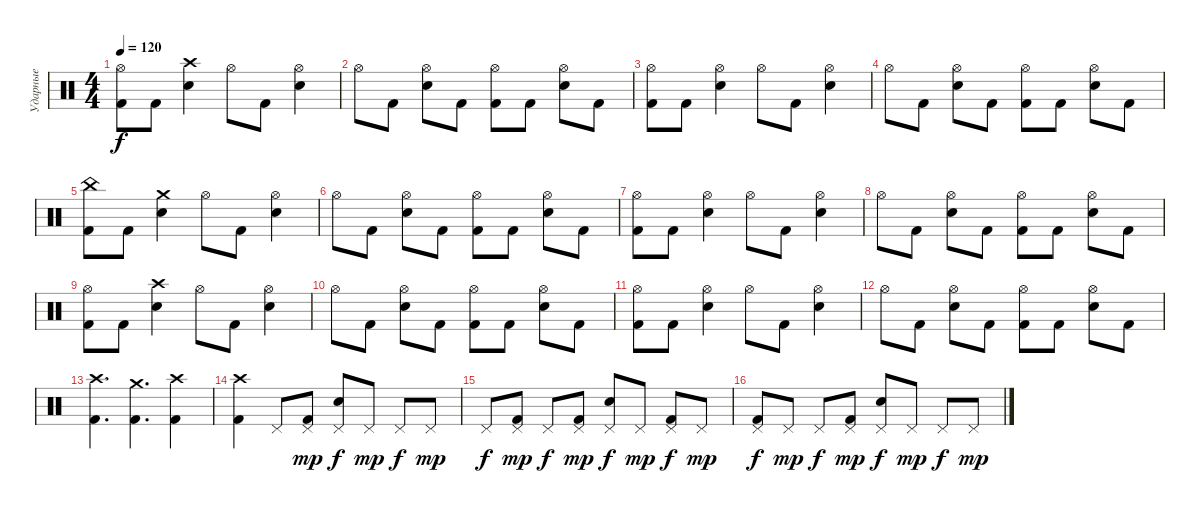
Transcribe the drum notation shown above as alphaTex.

\track ("Ударные" "Ударные") {instrument percussion}
\staff {score}
\articulation defaults
\ts (4 4)
\tempo 120
\clef neutral
\ks c
("Hi-Hat (open)" "Kick (hit) 2").8{dy f} "Kick (hit) 2".8 ("Crash high (hit)" "Electric Snare (hit)").4 "Hi-Hat (open)".8 "Kick (hit) 2".8 ("Hi-Hat (open)" "Electric Snare (hit)").4 |
"Hi-Hat (open)".8 "Kick (hit) 2".8 ("Hi-Hat (open)" "Electric Snare (hit)").8 "Kick (hit) 2".8 ("Hi-Hat (open)" "Kick (hit) 2").8 "Kick (hit) 2".8 ("Hi-Hat (open)" "Electric Snare (hit)").8 "Kick (hit) 2".8 |
("Hi-Hat (open)" "Kick (hit) 2").8 "Kick (hit) 2".8 ("Hi-Hat (open)" "Electric Snare (hit)").4 "Hi-Hat (open)".8 "Kick (hit) 2".8 ("Hi-Hat (open)" "Electric Snare (hit)").4 |
"Hi-Hat (open)".8 "Kick (hit) 2".8 ("Hi-Hat (open)" "Electric Snare (hit)").8 "Kick (hit) 2".8 ("Hi-Hat (open)" "Kick (hit) 2").8 "Kick (hit) 2".8 ("Hi-Hat (open)" "Electric Snare (hit)").8 "Kick (hit) 2".8 |
("China (hit)" "Kick (hit) 2").8 "Kick (hit) 2".8 ("Crash medium (hit)" "Electric Snare (hit)").4 "Hi-Hat (open)".8 "Kick (hit) 2".8 ("Hi-Hat (open)" "Electric Snare (hit)").4 |
"Hi-Hat (open)".8 "Kick (hit) 2".8 ("Hi-Hat (open)" "Electric Snare (hit)").8 "Kick (hit) 2".8 ("Hi-Hat (open)" "Kick (hit) 2").8 "Kick (hit) 2".8 ("Hi-Hat (open)" "Electric Snare (hit)").8 "Kick (hit) 2".8 |
("Hi-Hat (open)" "Kick (hit) 2").8 "Kick (hit) 2".8 ("Hi-Hat (open)" "Electric Snare (hit)").4 "Hi-Hat (open)".8 "Kick (hit) 2".8 ("Hi-Hat (open)" "Electric Snare (hit)").4 |
"Hi-Hat (open)".8 "Kick (hit) 2".8 ("Hi-Hat (open)" "Electric Snare (hit)").8 "Kick (hit) 2".8 ("Hi-Hat (open)" "Kick (hit) 2").8 "Kick (hit) 2".8 ("Hi-Hat (open)" "Electric Snare (hit)").8 "Kick (hit) 2".8 |
("Hi-Hat (open)" "Kick (hit) 2").8 "Kick (hit) 2".8 ("Crash high (hit)" "Electric Snare (hit)").4 "Hi-Hat (open)".8 "Kick (hit) 2".8 ("Hi-Hat (open)" "Electric Snare (hit)").4 |
"Hi-Hat (open)".8 "Kick (hit) 2".8 ("Hi-Hat (open)" "Electric Snare (hit)").8 "Kick (hit) 2".8 ("Hi-Hat (open)" "Kick (hit) 2").8 "Kick (hit) 2".8 ("Hi-Hat (open)" "Electric Snare (hit)").8 "Kick (hit) 2".8 |
("Hi-Hat (open)" "Kick (hit) 2").8 "Kick (hit) 2".8 ("Hi-Hat (open)" "Electric Snare (hit)").4 "Hi-Hat (open)".8 "Kick (hit) 2".8 ("Hi-Hat (open)" "Electric Snare (hit)").4 |
"Hi-Hat (open)".8 "Kick (hit) 2".8 ("Hi-Hat (open)" "Electric Snare (hit)").8 "Kick (hit) 2".8 ("Hi-Hat (open)" "Kick (hit) 2").8 "Kick (hit) 2".8 ("Hi-Hat (open)" "Electric Snare (hit)").8 "Kick (hit) 2".8 |
("Crash high (hit)" "Kick (hit) 2").4{d} ("Crash medium (hit)" "Kick (hit) 2").4{d} ("Crash high (hit)" "Kick (hit) 2").4 |
("Crash high (hit)" "Kick (hit) 2").4 "Pedal Hi-Hat (hit)".8 ("Pedal Hi-Hat (hit)" "Kick (hit) 2").8{dy mp} ("Pedal Hi-Hat (hit)" "Electric Snare (hit)").8{dy f} "Pedal Hi-Hat (hit)".8{dy mp} "Pedal Hi-Hat (hit)".8{dy f} "Pedal Hi-Hat (hit)".8{dy mp} |
"Pedal Hi-Hat (hit)".8{dy f} ("Pedal Hi-Hat (hit)" "Kick (hit) 2").8{dy mp} "Pedal Hi-Hat (hit)".8{dy f} ("Pedal Hi-Hat (hit)" "Kick (hit) 2").8{dy mp} ("Pedal Hi-Hat (hit)" "Electric Snare (hit)").8{dy f} "Pedal Hi-Hat (hit)".8{dy mp} ("Pedal Hi-Hat (hit)" "Kick (hit) 2").8{dy f} "Pedal Hi-Hat (hit)".8{dy mp} |
("Pedal Hi-Hat (hit)" "Kick (hit) 2").8{dy f} "Pedal Hi-Hat (hit)".8{dy mp} "Pedal Hi-Hat (hit)".8{dy f} ("Pedal Hi-Hat (hit)" "Kick (hit) 2").8{dy mp} ("Pedal Hi-Hat (hit)" "Electric Snare (hit)").8{dy f} "Pedal Hi-Hat (hit)".8{dy mp} "Pedal Hi-Hat (hit)".8{dy f} "Pedal Hi-Hat (hit)".8{dy mp}
